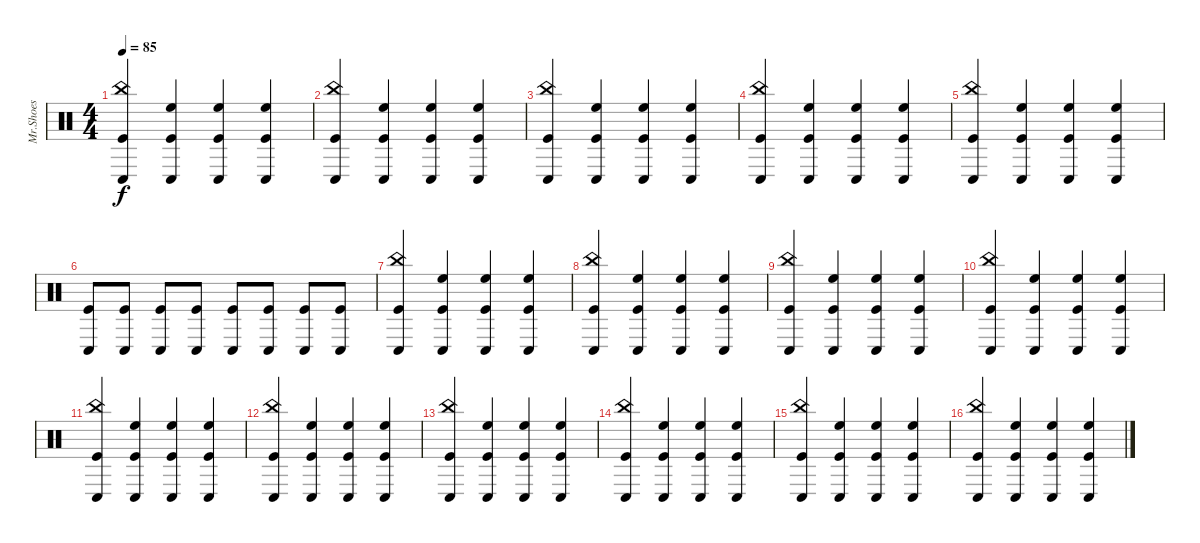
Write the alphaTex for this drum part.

\track ("Mr.Shoes" "Mr.Shoes") {instrument percussion}
\staff {score}
\articulation defaults
\ts (4 4)
\tempo 85
\clef neutral
\ks c
("China (hit)" "Kick (hit)" "Conga low (hit)").4{dy f} ("High Floor Tom (hit)" "Kick (hit)" "Conga low (hit)").4 ("High Floor Tom (hit)" "Kick (hit)" "Conga low (hit)").4 ("High Floor Tom (hit)" "Kick (hit)" "Conga low (hit)").4 |
("China (hit)" "Kick (hit)" "Conga low (hit)").4 ("High Floor Tom (hit)" "Kick (hit)" "Conga low (hit)").4 ("High Floor Tom (hit)" "Kick (hit)" "Conga low (hit)").4 ("High Floor Tom (hit)" "Kick (hit)" "Conga low (hit)").4 |
("China (hit)" "Kick (hit)" "Conga low (hit)").4 ("High Floor Tom (hit)" "Kick (hit)" "Conga low (hit)").4 ("High Floor Tom (hit)" "Kick (hit)" "Conga low (hit)").4 ("High Floor Tom (hit)" "Kick (hit)" "Conga low (hit)").4 |
("China (hit)" "Kick (hit)" "Conga low (hit)").4 ("High Floor Tom (hit)" "Kick (hit)" "Conga low (hit)").4 ("High Floor Tom (hit)" "Kick (hit)" "Conga low (hit)").4 ("High Floor Tom (hit)" "Kick (hit)" "Conga low (hit)").4 |
("China (hit)" "Kick (hit)" "Conga low (hit)").4 ("High Floor Tom (hit)" "Kick (hit)" "Conga low (hit)").4 ("High Floor Tom (hit)" "Kick (hit)" "Conga low (hit)").4 ("High Floor Tom (hit)" "Kick (hit)" "Conga low (hit)").4 |
("Kick (hit)" "Conga low (hit)").8 ("Kick (hit)" "Conga low (hit)").8 ("Kick (hit)" "Conga low (hit)").8 ("Kick (hit)" "Conga low (hit)").8 ("Kick (hit)" "Conga low (hit)").8 ("Kick (hit)" "Conga low (hit)").8 ("Kick (hit)" "Conga low (hit)").8 ("Kick (hit)" "Conga low (hit)").8 |
("China (hit)" "Kick (hit)" "Conga low (hit)").4 ("High Floor Tom (hit)" "Kick (hit)" "Conga low (hit)").4 ("High Floor Tom (hit)" "Kick (hit)" "Conga low (hit)").4 ("High Floor Tom (hit)" "Kick (hit)" "Conga low (hit)").4 |
("China (hit)" "Kick (hit)" "Conga low (hit)").4 ("High Floor Tom (hit)" "Kick (hit)" "Conga low (hit)").4 ("High Floor Tom (hit)" "Kick (hit)" "Conga low (hit)").4 ("High Floor Tom (hit)" "Kick (hit)" "Conga low (hit)").4 |
("China (hit)" "Kick (hit)" "Conga low (hit)").4 ("High Floor Tom (hit)" "Kick (hit)" "Conga low (hit)").4 ("High Floor Tom (hit)" "Kick (hit)" "Conga low (hit)").4 ("High Floor Tom (hit)" "Kick (hit)" "Conga low (hit)").4 |
("China (hit)" "Kick (hit)" "Conga low (hit)").4 ("High Floor Tom (hit)" "Kick (hit)" "Conga low (hit)").4 ("High Floor Tom (hit)" "Kick (hit)" "Conga low (hit)").4 ("High Floor Tom (hit)" "Kick (hit)" "Conga low (hit)").4 |
("China (hit)" "Kick (hit)" "Conga low (hit)").4 ("High Floor Tom (hit)" "Kick (hit)" "Conga low (hit)").4 ("High Floor Tom (hit)" "Kick (hit)" "Conga low (hit)").4 ("High Floor Tom (hit)" "Kick (hit)" "Conga low (hit)").4 |
("China (hit)" "Kick (hit)" "Conga low (hit)").4 ("High Floor Tom (hit)" "Kick (hit)" "Conga low (hit)").4 ("High Floor Tom (hit)" "Kick (hit)" "Conga low (hit)").4 ("High Floor Tom (hit)" "Kick (hit)" "Conga low (hit)").4 |
("China (hit)" "Kick (hit)" "Conga low (hit)").4 ("High Floor Tom (hit)" "Kick (hit)" "Conga low (hit)").4 ("High Floor Tom (hit)" "Kick (hit)" "Conga low (hit)").4 ("High Floor Tom (hit)" "Kick (hit)" "Conga low (hit)").4 |
("China (hit)" "Kick (hit)" "Conga low (hit)").4 ("High Floor Tom (hit)" "Kick (hit)" "Conga low (hit)").4 ("High Floor Tom (hit)" "Kick (hit)" "Conga low (hit)").4 ("High Floor Tom (hit)" "Kick (hit)" "Conga low (hit)").4 |
("China (hit)" "Kick (hit)" "Conga low (hit)").4 ("High Floor Tom (hit)" "Kick (hit)" "Conga low (hit)").4 ("High Floor Tom (hit)" "Kick (hit)" "Conga low (hit)").4 ("High Floor Tom (hit)" "Kick (hit)" "Conga low (hit)").4 |
("China (hit)" "Kick (hit)" "Conga low (hit)").4 ("High Floor Tom (hit)" "Kick (hit)" "Conga low (hit)").4 ("High Floor Tom (hit)" "Kick (hit)" "Conga low (hit)").4 ("High Floor Tom (hit)" "Kick (hit)" "Conga low (hit)").4
